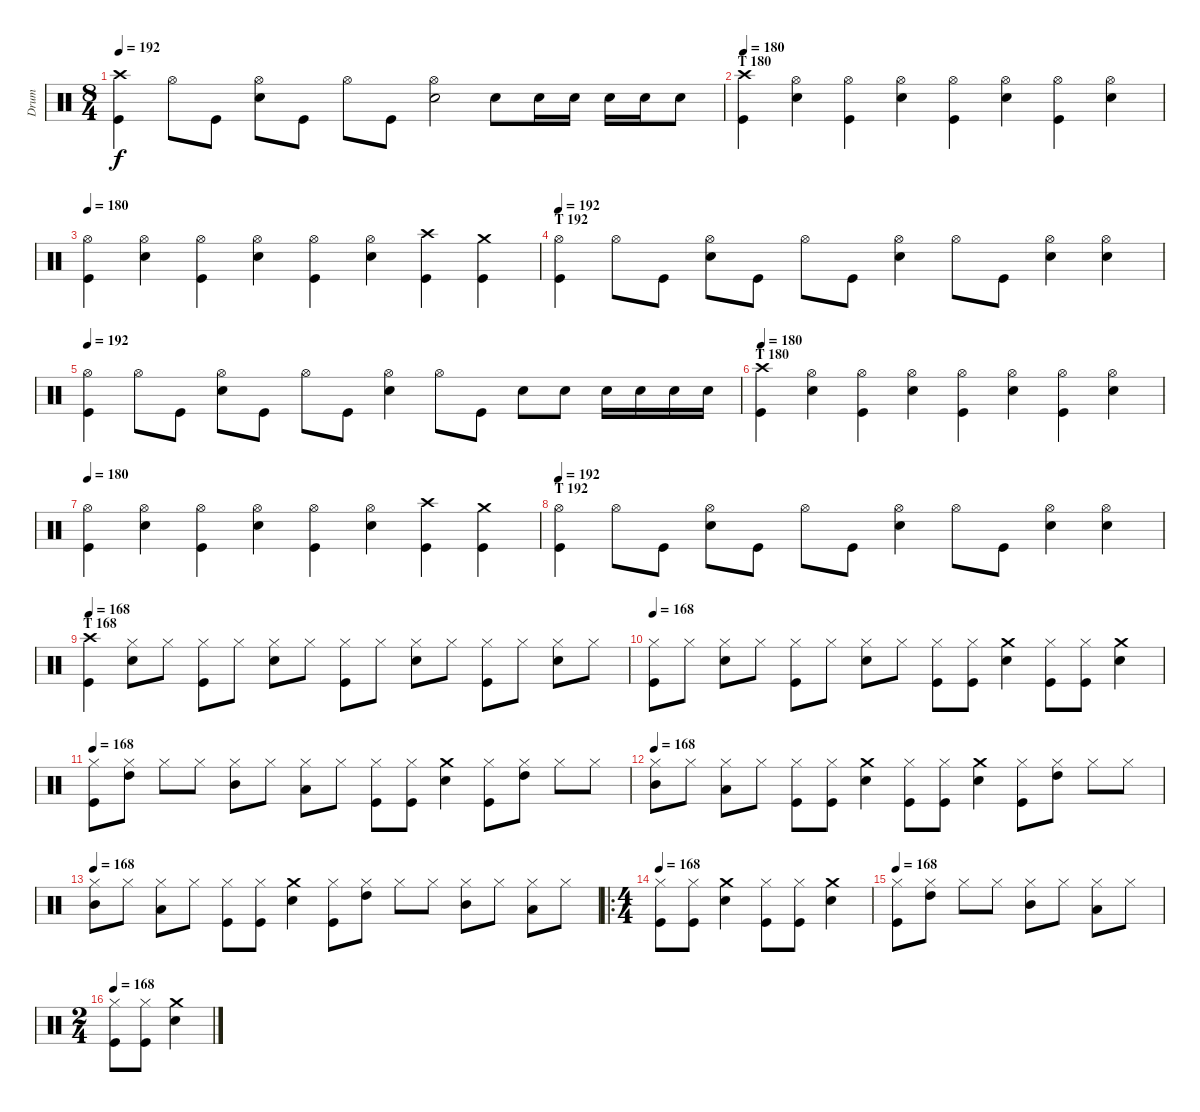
\track ("Drum" "Drum") {instrument percussion}
\staff {score}
\articulation defaults
\ts (8 4)
\tempo 192
\clef neutral
\ks c
("Crash high (hit)" "Kick (hit)").4{dy f} "Hi-Hat (open)".8 "Kick (hit)".8 ("Hi-Hat (open)" "Snare (hit) 2").8 "Kick (hit)".8 "Hi-Hat (open)".8 "Kick (hit)".8 ("Hi-Hat (open)" "Snare (hit) 2").2 "Snare (hit) 2".8 "Snare (hit) 2".16 "Snare (hit) 2".16 "Snare (hit) 2".16 "Snare (hit) 2".16 "Snare (hit) 2".8 |
\section ("" "T 180")
\tempo 180
("Crash high (hit)" "Kick (hit)").4 ("Hi-Hat (open)" "Snare (hit) 2").4 ("Hi-Hat (open)" "Kick (hit)").4 ("Hi-Hat (open)" "Snare (hit) 2").4 ("Hi-Hat (open)" "Kick (hit)").4 ("Hi-Hat (open)" "Snare (hit) 2").4 ("Hi-Hat (open)" "Kick (hit)").4 ("Hi-Hat (open)" "Snare (hit) 2").4 |
\tempo 180
("Hi-Hat (open)" "Kick (hit)").4 ("Hi-Hat (open)" "Snare (hit) 2").4 ("Hi-Hat (open)" "Kick (hit)").4 ("Hi-Hat (open)" "Snare (hit) 2").4 ("Hi-Hat (open)" "Kick (hit)").4 ("Hi-Hat (open)" "Snare (hit) 2").4 ("Crash high (hit)" "Kick (hit)").4 ("Crash medium (hit)" "Kick (hit)").4 |
\section ("" "T 192")
\tempo 192
("Hi-Hat (open)" "Kick (hit)").4 "Hi-Hat (open)".8 "Kick (hit)".8 ("Hi-Hat (open)" "Snare (hit) 2").8 "Kick (hit)".8 "Hi-Hat (open)".8 "Kick (hit)".8 ("Hi-Hat (open)" "Snare (hit) 2").4 "Hi-Hat (open)".8 "Kick (hit)".8 ("Hi-Hat (open)" "Snare (hit) 2").4 ("Hi-Hat (open)" "Snare (hit) 2").4 |
\tempo 192
("Hi-Hat (open)" "Kick (hit)").4 "Hi-Hat (open)".8 "Kick (hit)".8 ("Hi-Hat (open)" "Snare (hit) 2").8 "Kick (hit)".8 "Hi-Hat (open)".8 "Kick (hit)".8 ("Hi-Hat (open)" "Snare (hit) 2").4 "Hi-Hat (open)".8 "Kick (hit)".8 "Snare (hit) 2".8 "Snare (hit) 2".8 "Snare (hit) 2".16 "Snare (hit) 2".16 "Snare (hit) 2".16 "Snare (hit) 2".16 |
\section ("" "T 180")
\tempo 180
("Crash high (hit)" "Kick (hit)").4 ("Hi-Hat (open)" "Snare (hit) 2").4 ("Hi-Hat (open)" "Kick (hit)").4 ("Hi-Hat (open)" "Snare (hit) 2").4 ("Hi-Hat (open)" "Kick (hit)").4 ("Hi-Hat (open)" "Snare (hit) 2").4 ("Hi-Hat (open)" "Kick (hit)").4 ("Hi-Hat (open)" "Snare (hit) 2").4 |
\tempo 180
("Hi-Hat (open)" "Kick (hit)").4 ("Hi-Hat (open)" "Snare (hit) 2").4 ("Hi-Hat (open)" "Kick (hit)").4 ("Hi-Hat (open)" "Snare (hit) 2").4 ("Hi-Hat (open)" "Kick (hit)").4 ("Hi-Hat (open)" "Snare (hit) 2").4 ("Crash high (hit)" "Kick (hit)").4 ("Crash medium (hit)" "Kick (hit)").4 |
\section ("" "T 192")
\tempo 192
("Hi-Hat (open)" "Kick (hit)").4 "Hi-Hat (open)".8 "Kick (hit)".8 ("Hi-Hat (open)" "Snare (hit) 2").8 "Kick (hit)".8 "Hi-Hat (open)".8 "Kick (hit)".8 ("Hi-Hat (open)" "Snare (hit) 2").4 "Hi-Hat (open)".8 "Kick (hit)".8 ("Hi-Hat (open)" "Snare (hit) 2").4 ("Hi-Hat (open)" "Snare (hit) 2").4 |
\section ("" "T 168")
\tempo 168
("Crash high (hit)" "Kick (hit)").4 ("Hi-Hat (closed)" "Snare (hit) 2").8 "Hi-Hat (closed)".8 ("Hi-Hat (closed)" "Kick (hit)").8 "Hi-Hat (closed)".8 ("Hi-Hat (closed)" "Snare (hit) 2").8 "Hi-Hat (closed)".8 ("Hi-Hat (closed)" "Kick (hit)").8 "Hi-Hat (closed)".8 ("Hi-Hat (closed)" "Snare (hit) 2").8 "Hi-Hat (closed)".8 ("Hi-Hat (closed)" "Kick (hit)").8 "Hi-Hat (closed)".8 ("Hi-Hat (closed)" "Snare (hit) 2").8 "Hi-Hat (closed)".8 |
\tempo 168
("Hi-Hat (closed)" "Kick (hit)").8 "Hi-Hat (closed)".8 ("Hi-Hat (closed)" "Snare (hit) 2").8 "Hi-Hat (closed)".8 ("Hi-Hat (closed)" "Kick (hit)").8 "Hi-Hat (closed)".8 ("Hi-Hat (closed)" "Snare (hit) 2").8 "Hi-Hat (closed)".8 ("Hi-Hat (closed)" "Kick (hit)").8 ("Hi-Hat (closed)" "Kick (hit)").8 ("Crash medium (hit)" "Snare (hit) 2").4 ("Hi-Hat (closed)" "Kick (hit)").8 ("Hi-Hat (closed)" "Kick (hit)").8 ("Crash medium (hit)" "Snare (hit) 2").4 |
\tempo 168
("Hi-Hat (closed)" "Kick (hit)").8 ("Hi-Hat (closed)" "High Tom (hit)").8 "Hi-Hat (closed)".8 "Hi-Hat (closed)".8 ("Hi-Hat (closed)" "Mid Tom (hit)").8 "Hi-Hat (closed)".8 ("Hi-Hat (closed)" "Low Tom (hit)").8 "Hi-Hat (closed)".8 ("Hi-Hat (closed)" "Kick (hit)").8 ("Hi-Hat (closed)" "Kick (hit)").8 ("Crash medium (hit)" "Snare (hit) 2").4 ("Hi-Hat (closed)" "Kick (hit)").8 ("Hi-Hat (closed)" "High Tom (hit)").8 "Hi-Hat (closed)".8 "Hi-Hat (closed)".8 |
\tempo 168
("Hi-Hat (closed)" "Mid Tom (hit)").8 "Hi-Hat (closed)".8 ("Hi-Hat (closed)" "Low Tom (hit)").8 "Hi-Hat (closed)".8 ("Hi-Hat (closed)" "Kick (hit)").8 ("Hi-Hat (closed)" "Kick (hit)").8 ("Crash medium (hit)" "Snare (hit) 2").4 ("Hi-Hat (closed)" "Kick (hit)").8 ("Hi-Hat (closed)" "Kick (hit)").8 ("Crash medium (hit)" "Snare (hit) 2").4 ("Hi-Hat (closed)" "Kick (hit)").8 ("Hi-Hat (closed)" "High Tom (hit)").8 "Hi-Hat (closed)".8 "Hi-Hat (closed)".8 |
\tempo 168
("Hi-Hat (closed)" "Mid Tom (hit)").8 "Hi-Hat (closed)".8 ("Hi-Hat (closed)" "Low Tom (hit)").8 "Hi-Hat (closed)".8 ("Hi-Hat (closed)" "Kick (hit)").8 ("Hi-Hat (closed)" "Kick (hit)").8 ("Crash medium (hit)" "Snare (hit) 2").4 ("Hi-Hat (closed)" "Kick (hit)").8 ("Hi-Hat (closed)" "High Tom (hit)").8 "Hi-Hat (closed)".8 "Hi-Hat (closed)".8 ("Hi-Hat (closed)" "Mid Tom (hit)").8 "Hi-Hat (closed)".8 ("Hi-Hat (closed)" "Low Tom (hit)").8 "Hi-Hat (closed)".8 |
\ro
\ts (4 4)
\tempo 168
("Hi-Hat (closed)" "Kick (hit)").8 ("Hi-Hat (closed)" "Kick (hit)").8 ("Crash medium (hit)" "Snare (hit) 2").4 ("Hi-Hat (closed)" "Kick (hit)").8 ("Hi-Hat (closed)" "Kick (hit)").8 ("Crash medium (hit)" "Snare (hit) 2").4 |
\tempo 168
("Hi-Hat (closed)" "Kick (hit)").8 ("Hi-Hat (closed)" "High Tom (hit)").8 "Hi-Hat (closed)".8 "Hi-Hat (closed)".8 ("Hi-Hat (closed)" "Mid Tom (hit)").8 "Hi-Hat (closed)".8 ("Hi-Hat (closed)" "Low Tom (hit)").8 "Hi-Hat (closed)".8 |
\ts (2 4)
\tempo 168
("Hi-Hat (closed)" "Kick (hit)").8 ("Hi-Hat (closed)" "Kick (hit)").8 ("Crash medium (hit)" "Snare (hit) 2").4
